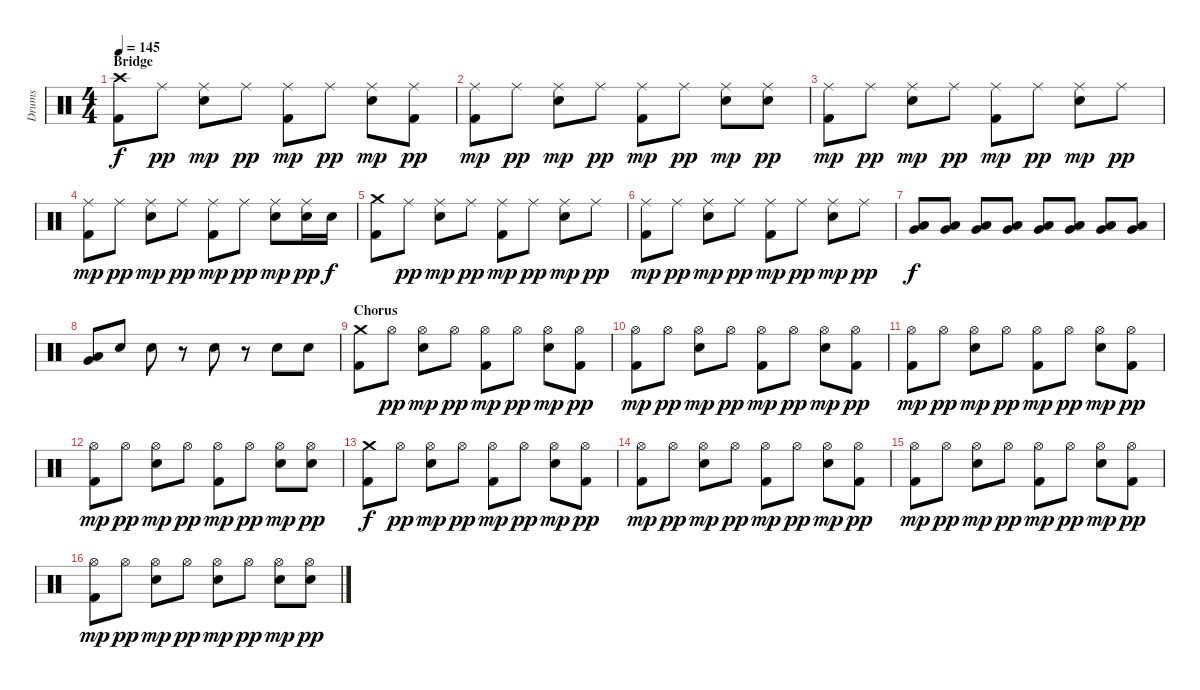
\track ("Drums" "Drums") {instrument percussion}
\staff {score}
\articulation defaults
\ts (4 4)
\section ("" "Bridge")
\tempo 145
\clef neutral
\ks c
("Crash high (hit)" "Kick (hit) 2").8{dy f} "Ride (middle)".8{dy pp} ("Ride (middle)" "Snare (hit) 2").8{dy mp} "Ride (middle)".8{dy pp} ("Ride (middle)" "Kick (hit) 2").8{dy mp} "Ride (middle)".8{dy pp} ("Ride (middle)" "Snare (hit) 2").8{dy mp} ("Ride (middle)" "Kick (hit) 2").8{dy pp} |
("Ride (middle)" "Kick (hit) 2").8{dy mp} "Ride (middle)".8{dy pp} ("Ride (middle)" "Snare (hit) 2").8{dy mp} "Ride (middle)".8{dy pp} ("Ride (middle)" "Kick (hit) 2").8{dy mp} "Ride (middle)".8{dy pp} ("Ride (middle)" "Snare (hit) 2").8{dy mp} ("Ride (middle)" "Snare (hit) 2").8{dy pp} |
("Ride (middle)" "Kick (hit) 2").8{dy mp} "Ride (middle)".8{dy pp} ("Ride (middle)" "Snare (hit) 2").8{dy mp} "Ride (middle)".8{dy pp} ("Ride (middle)" "Kick (hit) 2").8{dy mp} "Ride (middle)".8{dy pp} ("Ride (middle)" "Snare (hit) 2").8{dy mp} "Ride (middle)".8{dy pp} |
("Ride (middle)" "Kick (hit) 2").8{dy mp} "Ride (middle)".8{dy pp} ("Ride (middle)" "Snare (hit) 2").8{dy mp} "Ride (middle)".8{dy pp} ("Ride (middle)" "Kick (hit) 2").8{dy mp} "Ride (middle)".8{dy pp} ("Ride (middle)" "Snare (hit) 2").8{dy mp} ("Ride (middle)" "Snare (hit) 2").16{dy pp} "Snare (hit) 2".16{dy f} |
("Crash medium (hit)" "Kick (hit) 2").8 "Ride (middle)".8{dy pp} ("Ride (middle)" "Snare (hit) 2").8{dy mp} "Ride (middle)".8{dy pp} ("Ride (middle)" "Kick (hit) 2").8{dy mp} "Ride (middle)".8{dy pp} ("Ride (middle)" "Snare (hit) 2").8{dy mp} "Ride (middle)".8{dy pp} |
("Ride (middle)" "Kick (hit) 2").8{dy mp} "Ride (middle)".8{dy pp} ("Ride (middle)" "Snare (hit) 2").8{dy mp} "Ride (middle)".8{dy pp} ("Ride (middle)" "Kick (hit) 2").8{dy mp} "Ride (middle)".8{dy pp} ("Ride (middle)" "Snare (hit) 2").8{dy mp} "Ride (middle)".8{dy pp} |
("Low Tom (hit)" "Very Low Tom (hit)").8{dy f} ("Low Tom (hit)" "Very Low Tom (hit)").8 ("Low Tom (hit)" "Very Low Tom (hit)").8 ("Low Tom (hit)" "Very Low Tom (hit)").8 ("Low Tom (hit)" "Very Low Tom (hit)").8 ("Low Tom (hit)" "Very Low Tom (hit)").8 ("Low Tom (hit)" "Very Low Tom (hit)").8 ("Low Tom (hit)" "Very Low Tom (hit)").8 |
("Low Tom (hit)" "Very Low Tom (hit)").8 "Snare (hit) 2".8 "Snare (hit) 2".8 r.8 "Snare (hit) 2".8 r.8 "Snare (hit) 2".8 "Snare (hit) 2".8 |
\section ("" "Chorus")
("Crash medium (hit)" "Kick (hit) 2").8 "Hi-Hat (open)".8{dy pp} ("Hi-Hat (open)" "Snare (hit) 2").8{dy mp} "Hi-Hat (open)".8{dy pp} ("Hi-Hat (open)" "Kick (hit) 2").8{dy mp} "Hi-Hat (open)".8{dy pp} ("Hi-Hat (open)" "Snare (hit) 2").8{dy mp} ("Hi-Hat (open)" "Kick (hit) 2").8{dy pp} |
("Hi-Hat (open)" "Kick (hit) 2").8{dy mp} "Hi-Hat (open)".8{dy pp} ("Hi-Hat (open)" "Snare (hit) 2").8{dy mp} "Hi-Hat (open)".8{dy pp} ("Hi-Hat (open)" "Kick (hit) 2").8{dy mp} "Hi-Hat (open)".8{dy pp} ("Hi-Hat (open)" "Snare (hit) 2").8{dy mp} ("Hi-Hat (open)" "Kick (hit) 2").8{dy pp} |
("Hi-Hat (open)" "Kick (hit) 2").8{dy mp} "Hi-Hat (open)".8{dy pp} ("Hi-Hat (open)" "Snare (hit) 2").8{dy mp} "Hi-Hat (open)".8{dy pp} ("Hi-Hat (open)" "Kick (hit) 2").8{dy mp} "Hi-Hat (open)".8{dy pp} ("Hi-Hat (open)" "Snare (hit) 2").8{dy mp} ("Hi-Hat (open)" "Kick (hit) 2").8{dy pp} |
("Hi-Hat (open)" "Kick (hit) 2").8{dy mp} "Hi-Hat (open)".8{dy pp} ("Hi-Hat (open)" "Snare (hit) 2").8{dy mp} "Hi-Hat (open)".8{dy pp} ("Hi-Hat (open)" "Kick (hit) 2").8{dy mp} "Hi-Hat (open)".8{dy pp} ("Hi-Hat (open)" "Snare (hit) 2").8{dy mp} ("Hi-Hat (open)" "Snare (hit) 2").8{dy pp} |
("Crash medium (hit)" "Kick (hit) 2").8{dy f} "Hi-Hat (open)".8{dy pp} ("Hi-Hat (open)" "Snare (hit) 2").8{dy mp} "Hi-Hat (open)".8{dy pp} ("Hi-Hat (open)" "Kick (hit) 2").8{dy mp} "Hi-Hat (open)".8{dy pp} ("Hi-Hat (open)" "Snare (hit) 2").8{dy mp} ("Hi-Hat (open)" "Kick (hit) 2").8{dy pp} |
("Hi-Hat (open)" "Kick (hit) 2").8{dy mp} "Hi-Hat (open)".8{dy pp} ("Hi-Hat (open)" "Snare (hit) 2").8{dy mp} "Hi-Hat (open)".8{dy pp} ("Hi-Hat (open)" "Kick (hit) 2").8{dy mp} "Hi-Hat (open)".8{dy pp} ("Hi-Hat (open)" "Snare (hit) 2").8{dy mp} ("Hi-Hat (open)" "Kick (hit) 2").8{dy pp} |
("Hi-Hat (open)" "Kick (hit) 2").8{dy mp} "Hi-Hat (open)".8{dy pp} ("Hi-Hat (open)" "Snare (hit) 2").8{dy mp} "Hi-Hat (open)".8{dy pp} ("Hi-Hat (open)" "Kick (hit) 2").8{dy mp} "Hi-Hat (open)".8{dy pp} ("Hi-Hat (open)" "Snare (hit) 2").8{dy mp} ("Hi-Hat (open)" "Kick (hit) 2").8{dy pp} |
("Hi-Hat (open)" "Kick (hit) 2").8{dy mp} "Hi-Hat (open)".8{dy pp} ("Hi-Hat (open)" "Snare (hit) 2").8{dy mp} "Hi-Hat (open)".8{dy pp} ("Hi-Hat (open)" "Snare (hit) 2").8{dy mp} "Hi-Hat (open)".8{dy pp} ("Hi-Hat (open)" "Snare (hit) 2").8{dy mp} ("Hi-Hat (open)" "Snare (hit) 2").8{dy pp}
